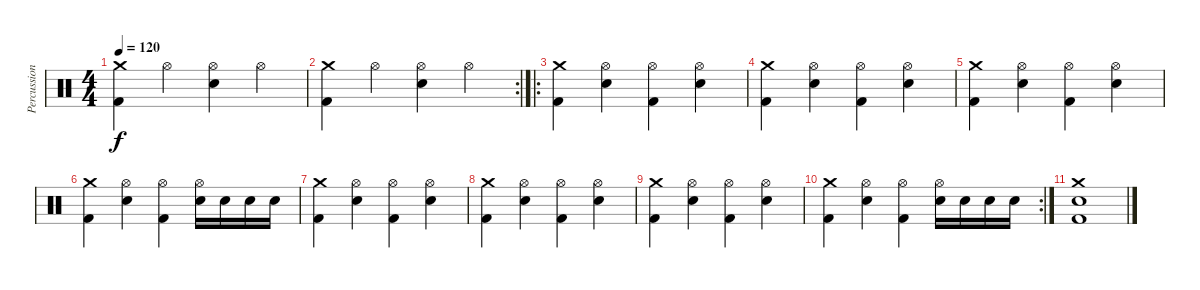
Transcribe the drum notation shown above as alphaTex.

\track ("Percussion" "Percussion") {instrument percussion}
\staff {score}
\articulation defaults
\ts (4 4)
\tempo 120
\clef neutral
\ks c
("Crash medium (hit)" "Kick (hit) 2").4{dy f} "Hi-Hat (open)".4 ("Hi-Hat (open)" "Electric Snare (hit)").4 "Hi-Hat (open)".4 |
\rc 2
("Crash medium (hit)" "Kick (hit) 2").4 "Hi-Hat (open)".4 ("Hi-Hat (open)" "Electric Snare (hit)").4 "Hi-Hat (open)".4 |
\ro
("Crash medium (hit)" "Kick (hit) 2").4 ("Hi-Hat (open)" "Electric Snare (hit)").4 ("Hi-Hat (open)" "Kick (hit) 2").4 ("Hi-Hat (open)" "Electric Snare (hit)").4 |
("Crash medium (hit)" "Kick (hit) 2").4 ("Hi-Hat (open)" "Electric Snare (hit)").4 ("Hi-Hat (open)" "Kick (hit) 2").4 ("Hi-Hat (open)" "Electric Snare (hit)").4 |
("Crash medium (hit)" "Kick (hit) 2").4 ("Hi-Hat (open)" "Electric Snare (hit)").4 ("Hi-Hat (open)" "Kick (hit) 2").4 ("Hi-Hat (open)" "Electric Snare (hit)").4 |
("Crash medium (hit)" "Kick (hit) 2").4 ("Hi-Hat (open)" "Electric Snare (hit)").4 ("Hi-Hat (open)" "Kick (hit) 2").4 ("Hi-Hat (open)" "Electric Snare (hit)").16 "Electric Snare (hit)".16 "Electric Snare (hit)".16 "Electric Snare (hit)".16 |
("Crash medium (hit)" "Kick (hit) 2").4 ("Hi-Hat (open)" "Electric Snare (hit)").4 ("Hi-Hat (open)" "Kick (hit) 2").4 ("Hi-Hat (open)" "Electric Snare (hit)").4 |
("Crash medium (hit)" "Kick (hit) 2").4 ("Hi-Hat (open)" "Electric Snare (hit)").4 ("Hi-Hat (open)" "Kick (hit) 2").4 ("Hi-Hat (open)" "Electric Snare (hit)").4 |
("Crash medium (hit)" "Kick (hit) 2").4 ("Hi-Hat (open)" "Electric Snare (hit)").4 ("Hi-Hat (open)" "Kick (hit) 2").4 ("Hi-Hat (open)" "Electric Snare (hit)").4 |
\rc 2
("Crash medium (hit)" "Kick (hit) 2").4 ("Hi-Hat (open)" "Electric Snare (hit)").4 ("Hi-Hat (open)" "Kick (hit) 2").4 ("Hi-Hat (open)" "Electric Snare (hit)").16 "Electric Snare (hit)".16 "Electric Snare (hit)".16 "Electric Snare (hit)".16 |
("Crash medium (hit)" "Electric Snare (hit)" "Kick (hit) 2").1
